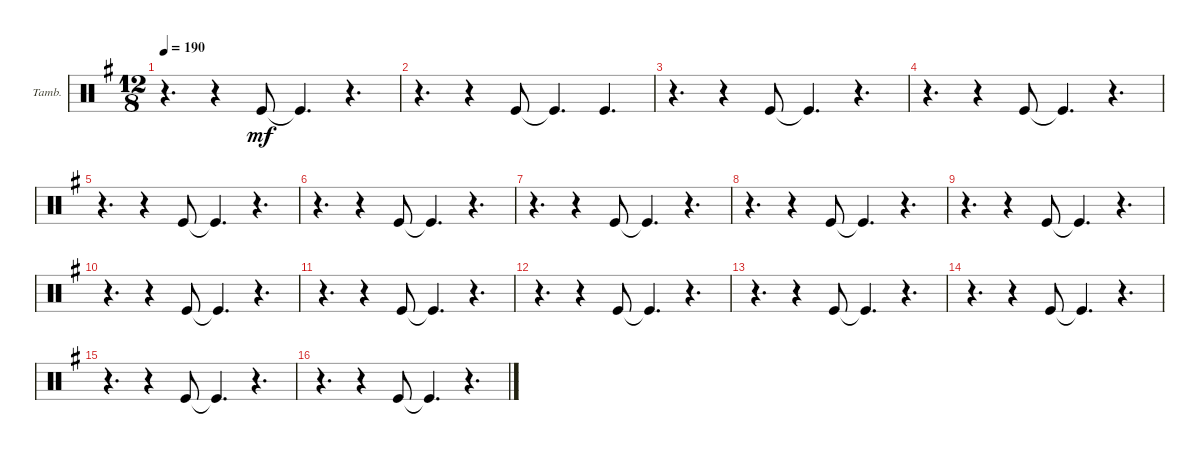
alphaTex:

\defaultSystemsLayout 4
\bracketExtendMode groupsimilarinstruments
\firstSystemTrackNameOrientation horizontal
\otherSystemsTrackNameOrientation horizontal
\track ("Tambourine" "Tamb.") {instrument percussion}
\staff {score}
\articulation defaults
\ts (12 8)
\tempo 190
\clef neutral
\ks g
r.4{d dy mf} r.4 "Kick (hit)".8 "Kick (hit)"{t}.4{d} r.4{d} |
r.4{d} r.4 "Kick (hit)".8 "Kick (hit)"{t}.4{d} "Kick (hit)".4{d} |
r.4{d} r.4 "Kick (hit)".8 "Kick (hit)"{t}.4{d} r.4{d} |
r.4{d} r.4 "Kick (hit)".8 "Kick (hit)"{t}.4{d} r.4{d} |
r.4{d} r.4 "Kick (hit)".8 "Kick (hit)"{t}.4{d} r.4{d} |
r.4{d} r.4 "Kick (hit)".8 "Kick (hit)"{t}.4{d} r.4{d} |
r.4{d} r.4 "Kick (hit)".8 "Kick (hit)"{t}.4{d} r.4{d} |
r.4{d} r.4 "Kick (hit)".8 "Kick (hit)"{t}.4{d} r.4{d} |
r.4{d} r.4 "Kick (hit)".8 "Kick (hit)"{t}.4{d} r.4{d} |
r.4{d} r.4 "Kick (hit)".8 "Kick (hit)"{t}.4{d} r.4{d} |
r.4{d} r.4 "Kick (hit)".8 "Kick (hit)"{t}.4{d} r.4{d} |
r.4{d} r.4 "Kick (hit)".8 "Kick (hit)"{t}.4{d} r.4{d} |
r.4{d} r.4 "Kick (hit)".8 "Kick (hit)"{t}.4{d} r.4{d} |
r.4{d} r.4 "Kick (hit)".8 "Kick (hit)"{t}.4{d} r.4{d} |
r.4{d} r.4 "Kick (hit)".8 "Kick (hit)"{t}.4{d} r.4{d} |
r.4{d} r.4 "Kick (hit)".8 "Kick (hit)"{t}.4{d} r.4{d}
